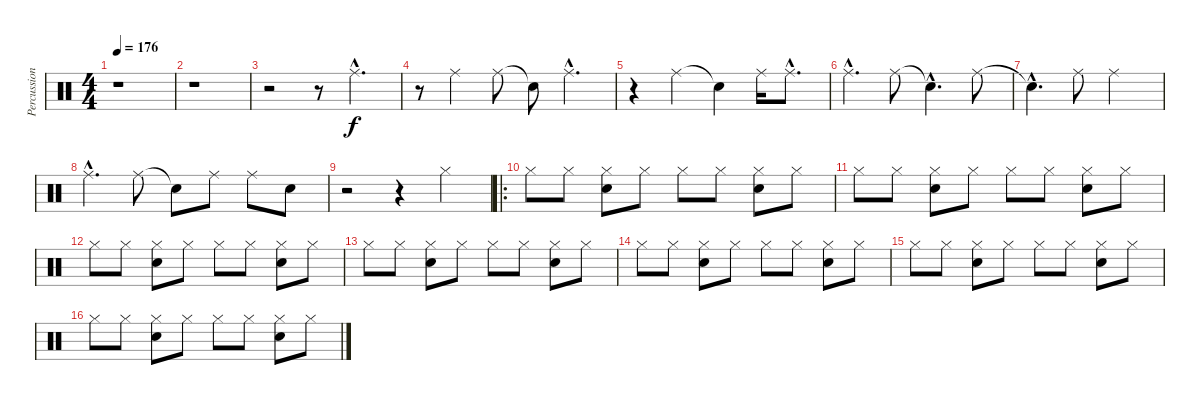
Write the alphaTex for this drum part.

\track ("Percussions" "Percussion") {instrument percussion}
\staff {score}
\articulation defaults
\ts (4 4)
\tempo 176
\clef neutral
\ks c
r.1{dy f} |
r.1 |
r.2 r.8 "Ride (middle)"{hac}.4{d} |
r.8 "Ride (middle)".4 "Ride (middle)".8 "Snare (hit)"{t}.8 "Ride (middle)"{hac}.4{d} |
r.4 "Ride (middle)".4 "Snare (hit)"{t}.4 "Ride (middle)".16 "Ride (middle)"{hac}.8{d} |
"Ride (middle)"{hac}.4{d} "Ride (middle)".8 "Snare (hit)"{hac t}.4{d} "Ride (middle)".8 |
"Snare (hit)"{hac t}.4{d} "Ride (middle)".8 "Ride (middle)".2 |
"Ride (middle)"{hac}.4{d} "Ride (middle)".8 "Snare (hit)"{t}.8 "Ride (middle)".8 "Ride (middle)".8 "Snare (hit) 2".8 |
r.2 r.4 "Hi-Hat (closed)".4 |
\ro "Hi-Hat (closed)".8 "Hi-Hat (closed)".8
("Hi-Hat (closed)" "Snare (hit) 2").8 "Hi-Hat (closed)".8 "Hi-Hat (closed)".8 "Hi-Hat (closed)".8 ("Hi-Hat (closed)" "Snare (hit) 2").8 "Hi-Hat (closed)".8 |
"Hi-Hat (closed)".8 "Hi-Hat (closed)".8 ("Hi-Hat (closed)" "Snare (hit) 2").8 "Hi-Hat (closed)".8 "Hi-Hat (closed)".8 "Hi-Hat (closed)".8 ("Hi-Hat (closed)" "Snare (hit) 2").8 "Hi-Hat (closed)".8 |
"Hi-Hat (closed)".8 "Hi-Hat (closed)".8 ("Hi-Hat (closed)" "Snare (hit) 2").8 "Hi-Hat (closed)".8 "Hi-Hat (closed)".8 "Hi-Hat (closed)".8 ("Hi-Hat (closed)" "Snare (hit) 2").8 "Hi-Hat (closed)".8 |
"Hi-Hat (closed)".8 "Hi-Hat (closed)".8 ("Hi-Hat (closed)" "Snare (hit) 2").8 "Hi-Hat (closed)".8 "Hi-Hat (closed)".8 "Hi-Hat (closed)".8 ("Hi-Hat (closed)" "Snare (hit) 2").8 "Hi-Hat (closed)".8 |
"Hi-Hat (closed)".8 "Hi-Hat (closed)".8 ("Hi-Hat (closed)" "Snare (hit) 2").8 "Hi-Hat (closed)".8 "Hi-Hat (closed)".8 "Hi-Hat (closed)".8 ("Hi-Hat (closed)" "Snare (hit) 2").8 "Hi-Hat (closed)".8 |
"Hi-Hat (closed)".8 "Hi-Hat (closed)".8 ("Hi-Hat (closed)" "Snare (hit) 2").8 "Hi-Hat (closed)".8 "Hi-Hat (closed)".8 "Hi-Hat (closed)".8 ("Hi-Hat (closed)" "Snare (hit) 2").8 "Hi-Hat (closed)".8 |
"Hi-Hat (closed)".8 "Hi-Hat (closed)".8 ("Hi-Hat (closed)" "Snare (hit) 2").8 "Hi-Hat (closed)".8 "Hi-Hat (closed)".8 "Hi-Hat (closed)".8 ("Hi-Hat (closed)" "Snare (hit) 2").8 "Hi-Hat (closed)".8
